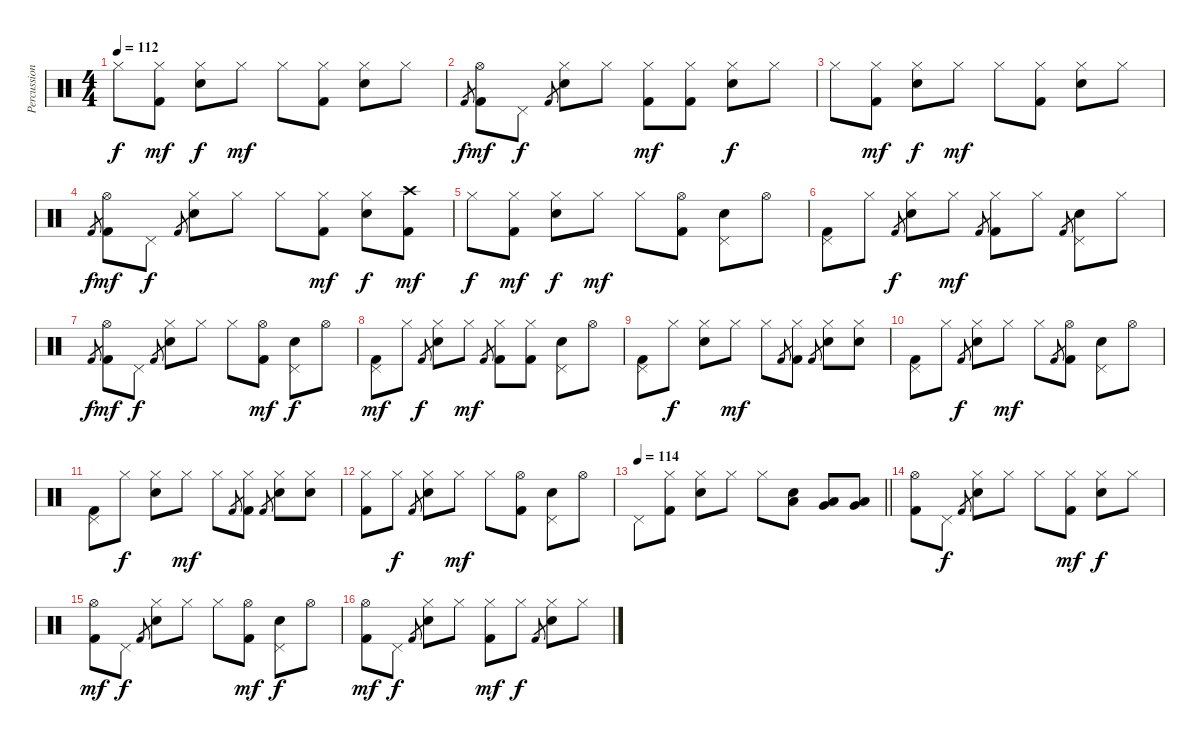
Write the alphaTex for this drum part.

\track ("Percussion" "Percussion") {instrument percussion}
\staff {score}
\articulation defaults
\ts (4 4)
\tempo 112
\clef neutral
\ks c "Hi-Hat (closed)".8{dy f}
("Hi-Hat (closed)" "Kick (hit) 2").8{dy mf} ("Hi-Hat (closed)" "Snare (hit) 2").8{dy f} "Hi-Hat (closed)".8{dy mf} "Hi-Hat (closed)".8 ("Hi-Hat (closed)" "Kick (hit) 2").8 ("Hi-Hat (closed)" "Snare (hit) 2").8 "Hi-Hat (closed)".8 |
"Kick (hit) 2".8{gr dy f} ("Hi-Hat (open)" "Kick (hit) 2").8{dy mf} "Pedal Hi-Hat (hit)".8{dy f} "Kick (hit) 2".8{gr} ("Hi-Hat (closed)" "Snare (hit) 2").8 "Hi-Hat (closed)".8 ("Hi-Hat (closed)" "Kick (hit) 2").8{dy mf} ("Hi-Hat (closed)" "Kick (hit) 2").8 ("Hi-Hat (closed)" "Snare (hit) 2").8{dy f} "Hi-Hat (closed)".8 |
"Hi-Hat (closed)".8 ("Hi-Hat (closed)" "Kick (hit) 2").8{dy mf} ("Hi-Hat (closed)" "Snare (hit) 2").8{dy f} "Hi-Hat (closed)".8{dy mf} "Hi-Hat (closed)".8 ("Hi-Hat (closed)" "Kick (hit) 2").8 ("Hi-Hat (closed)" "Snare (hit) 2").8 "Hi-Hat (closed)".8 |
"Kick (hit) 2".8{gr dy f} ("Hi-Hat (open)" "Kick (hit) 2").8{dy mf} "Pedal Hi-Hat (hit)".8{dy f} "Kick (hit) 2".8{gr} ("Hi-Hat (closed)" "Snare (hit) 2").8 "Hi-Hat (closed)".8 "Hi-Hat (closed)".8 ("Hi-Hat (closed)" "Kick (hit) 2").8{dy mf} ("Hi-Hat (closed)" "Snare (hit) 2").8{dy f} ("Crash high (hit)" "Kick (hit) 2").8{dy mf} |
"Hi-Hat (closed)".8{dy f} ("Hi-Hat (closed)" "Kick (hit) 2").8{dy mf} ("Hi-Hat (closed)" "Snare (hit) 2").8{dy f} "Hi-Hat (closed)".8{dy mf} "Hi-Hat (closed)".8 ("Hi-Hat (open)" "Kick (hit) 2").8 ("Pedal Hi-Hat (hit)" "Snare (hit) 2").8 "Hi-Hat (open)".8 |
("Pedal Hi-Hat (hit)" "Kick (hit) 2").8 "Hi-Hat (closed)".8 "Kick (hit) 2".8{gr dy f} ("Hi-Hat (closed)" "Snare (hit) 2").8 "Hi-Hat (closed)".8{dy mf} "Kick (hit) 2".8{gr} ("Hi-Hat (closed)" "Kick (hit) 2").8 "Hi-Hat (closed)".8 "Kick (hit) 2".8{gr} ("Pedal Hi-Hat (hit)" "Snare (hit) 2").8 "Hi-Hat (closed)".8 |
"Kick (hit) 2".8{gr dy f} ("Hi-Hat (open)" "Kick (hit) 2").8{dy mf} "Pedal Hi-Hat (hit)".8{dy f} "Kick (hit) 2".8{gr} ("Hi-Hat (closed)" "Snare (hit) 2").8 "Hi-Hat (closed)".8 "Hi-Hat (closed)".8 ("Hi-Hat (open)" "Kick (hit) 2").8{dy mf} ("Pedal Hi-Hat (hit)" "Snare (hit) 2").8{dy f} "Hi-Hat (open)".8 |
("Pedal Hi-Hat (hit)" "Kick (hit) 2").8{dy mf} "Hi-Hat (closed)".8 "Kick (hit) 2".8{gr dy f} ("Hi-Hat (closed)" "Snare (hit) 2").8 "Hi-Hat (closed)".8{dy mf} "Kick (hit) 2".8{gr} ("Hi-Hat (closed)" "Kick (hit) 2").8 ("Hi-Hat (closed)" "Kick (hit) 2").8 ("Pedal Hi-Hat (hit)" "Snare (hit) 2").8 "Hi-Hat (open)".8 |
("Pedal Hi-Hat (hit)" "Kick (hit) 2").8 "Hi-Hat (closed)".8{dy f} ("Hi-Hat (closed)" "Snare (hit) 2").8 "Hi-Hat (closed)".8{dy mf} "Hi-Hat (closed)".8 "Kick (hit) 2".8{gr} ("Hi-Hat (closed)" "Kick (hit) 2").8 "Kick (hit) 2".8{gr} ("Hi-Hat (closed)" "Snare (hit) 2").8 ("Hi-Hat (closed)" "Snare (hit) 2").8 |
("Pedal Hi-Hat (hit)" "Kick (hit) 2").8 "Hi-Hat (closed)".8 "Kick (hit) 2".8{gr dy f} ("Hi-Hat (closed)" "Snare (hit) 2").8 "Hi-Hat (closed)".8{dy mf} "Hi-Hat (closed)".8 "Kick (hit) 2".8{gr} ("Hi-Hat (open)" "Kick (hit) 2").8 ("Pedal Hi-Hat (hit)" "Snare (hit) 2").8 "Hi-Hat (open)".8 |
("Pedal Hi-Hat (hit)" "Kick (hit) 2").8 "Hi-Hat (closed)".8{dy f} ("Hi-Hat (closed)" "Snare (hit) 2").8 "Hi-Hat (closed)".8{dy mf} "Hi-Hat (closed)".8 "Kick (hit) 2".8{gr} ("Hi-Hat (closed)" "Kick (hit) 2").8 "Kick (hit) 2".8{gr} ("Hi-Hat (closed)" "Snare (hit) 2").8 ("Hi-Hat (closed)" "Snare (hit) 2").8 |
("Hi-Hat (closed)" "Kick (hit) 2").8 "Hi-Hat (closed)".8{dy f} "Kick (hit) 2".8{gr} ("Hi-Hat (closed)" "Snare (hit) 2").8 "Hi-Hat (closed)".8{dy mf} "Hi-Hat (closed)".8 ("Hi-Hat (open)" "Kick (hit) 2").8 ("Pedal Hi-Hat (hit)" "Snare (hit) 2").8 "Hi-Hat (open)".8 |
\tempo 114
\barLineRight lightlight "Pedal Hi-Hat (hit)".8
("Hi-Hat (closed)" "Kick (hit) 2").8 ("Hi-Hat (closed)" "Snare (hit) 2").8 "Hi-Hat (closed)".8 "Hi-Hat (closed)".8 ("Snare (hit) 2" "Low Tom (hit)").8 ("Low Tom (hit)" "Very Low Tom (hit)").8 ("Very Low Tom (hit)" "Low Floor Tom (hit)").8 |
("Hi-Hat (open)" "Kick (hit) 2").8 "Pedal Hi-Hat (hit)".8{dy f} "Kick (hit) 2".8{gr} ("Hi-Hat (closed)" "Snare (hit) 2").8 "Hi-Hat (closed)".8 "Hi-Hat (closed)".8 ("Hi-Hat (closed)" "Kick (hit) 2").8{dy mf} ("Hi-Hat (closed)" "Snare (hit) 2").8{dy f} "Hi-Hat (closed)".8 |
("Hi-Hat (open)" "Kick (hit) 2").8{dy mf} "Pedal Hi-Hat (hit)".8{dy f} "Kick (hit) 2".8{gr} ("Hi-Hat (closed)" "Snare (hit) 2").8 "Hi-Hat (closed)".8 "Hi-Hat (closed)".8 ("Hi-Hat (open)" "Kick (hit) 2").8{dy mf} ("Pedal Hi-Hat (hit)" "Snare (hit) 2").8{dy f} "Hi-Hat (open)".8 |
("Hi-Hat (open)" "Kick (hit) 2").8{dy mf} "Pedal Hi-Hat (hit)".8{dy f} "Kick (hit) 2".8{gr} ("Hi-Hat (closed)" "Snare (hit) 2").8 "Hi-Hat (closed)".8 ("Hi-Hat (closed)" "Kick (hit) 2").8{dy mf} "Hi-Hat (closed)".8{dy f} "Kick (hit) 2".8{gr} ("Hi-Hat (closed)" "Snare (hit) 2").8 "Hi-Hat (closed)".8
